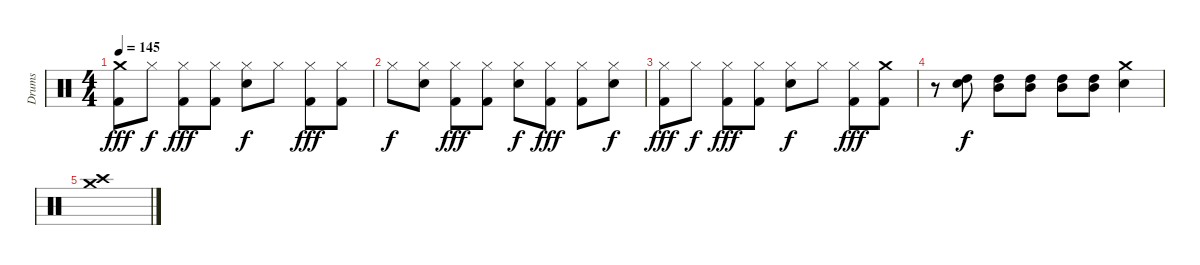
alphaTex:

\track ("Drums" "Drums") {instrument percussion}
\staff {score}
\articulation defaults
\ts (4 4)
\tempo 145
\clef neutral
\ks c
("Crash medium (hit)" "Kick (hit) 2").8{dy fff} "Hi-Hat (closed)".8{dy f} ("Hi-Hat (closed)" "Kick (hit) 2").8{dy fff} ("Hi-Hat (closed)" "Kick (hit) 2").8 ("Hi-Hat (closed)" "Snare (hit) 2").8{dy f} "Hi-Hat (closed)".8 ("Hi-Hat (closed)" "Kick (hit) 2").8{dy fff} ("Hi-Hat (closed)" "Kick (hit) 2").8 |
"Hi-Hat (closed)".8{dy f} ("Hi-Hat (closed)" "Snare (hit) 2").8 ("Hi-Hat (closed)" "Kick (hit) 2").8{dy fff} ("Hi-Hat (closed)" "Kick (hit) 2").8 ("Hi-Hat (closed)" "Snare (hit) 2").8{dy f} ("Hi-Hat (closed)" "Kick (hit) 2").8{dy fff} ("Hi-Hat (closed)" "Kick (hit) 2").8 ("Hi-Hat (closed)" "Snare (hit) 2").8{dy f} |
("Hi-Hat (closed)" "Kick (hit) 2").8{dy fff} "Hi-Hat (closed)".8{dy f} ("Hi-Hat (closed)" "Kick (hit) 2").8{dy fff} ("Hi-Hat (closed)" "Kick (hit) 2").8 ("Hi-Hat (closed)" "Snare (hit) 2").8{dy f} "Hi-Hat (closed)".8 ("Hi-Hat (closed)" "Kick (hit) 2").8{dy fff} ("Crash medium (hit)" "Kick (hit) 2").8 |
r.8 ("Snare (hit) 2" "High Tom (hit)").8{dy f} ("High Tom (hit)" "Mid Tom (hit)").8 ("High Tom (hit)" "Mid Tom (hit)").8 ("High Tom (hit)" "Mid Tom (hit)").8 ("High Tom (hit)" "Mid Tom (hit)").8 ("Crash medium (hit)" "Snare (hit) 2").4 |
("Crash high (hit)" "Crash medium (hit)").1
